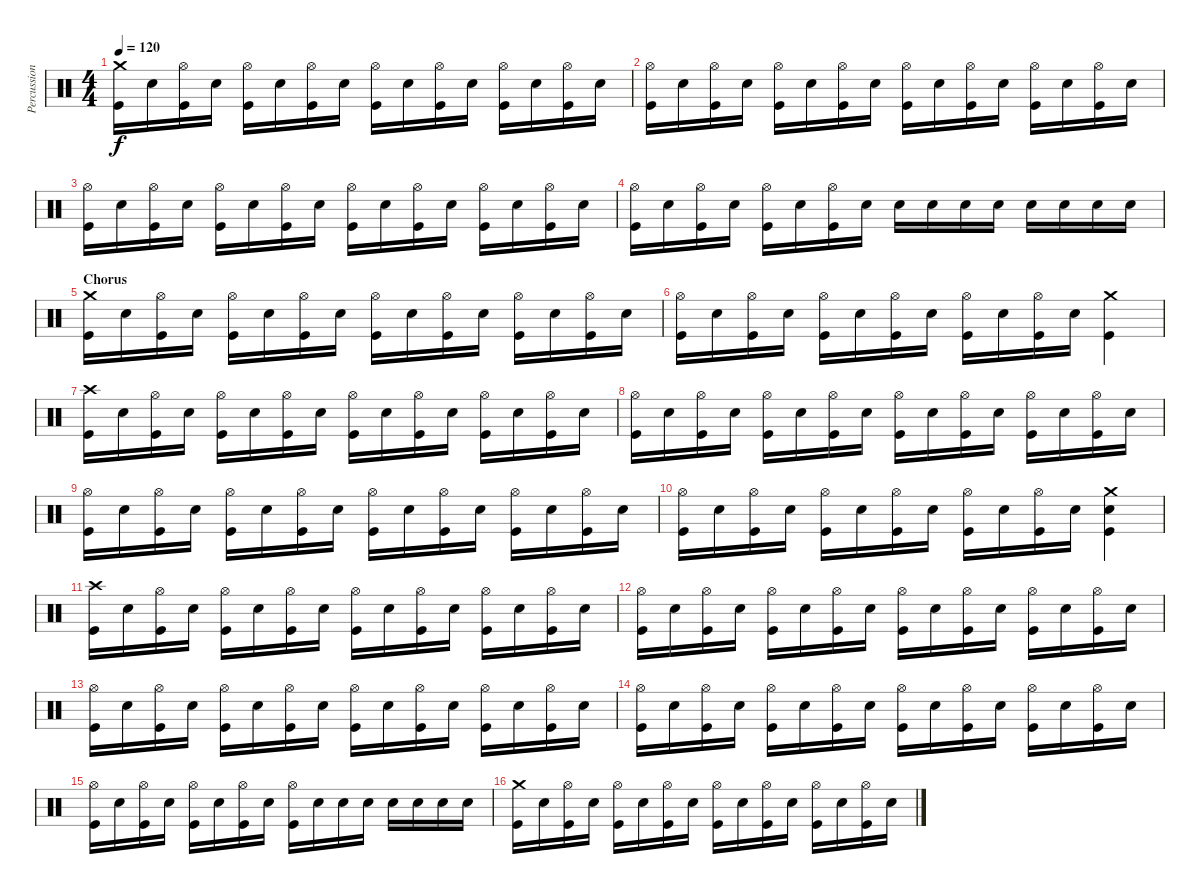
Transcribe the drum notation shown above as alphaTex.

\track ("Percussioni" "Percussion") {instrument percussion}
\staff {score}
\articulation defaults
\ts (4 4)
\tempo 120
\clef neutral
\ks c
("Crash medium (hit)" "Kick (hit)").16{dy f} "Snare (hit) 2".16 ("Hi-Hat (open)" "Kick (hit)").16 "Snare (hit) 2".16 ("Hi-Hat (open)" "Kick (hit)").16 "Snare (hit) 2".16 ("Hi-Hat (open)" "Kick (hit)").16 "Snare (hit) 2".16 ("Hi-Hat (open)" "Kick (hit)").16 "Snare (hit) 2".16 ("Hi-Hat (open)" "Kick (hit)").16 "Snare (hit) 2".16 ("Hi-Hat (open)" "Kick (hit)").16 "Snare (hit) 2".16 ("Hi-Hat (open)" "Kick (hit)").16 "Snare (hit) 2".16 |
("Hi-Hat (open)" "Kick (hit)").16 "Snare (hit) 2".16 ("Hi-Hat (open)" "Kick (hit)").16 "Snare (hit) 2".16 ("Hi-Hat (open)" "Kick (hit)").16 "Snare (hit) 2".16 ("Hi-Hat (open)" "Kick (hit)").16 "Snare (hit) 2".16 ("Hi-Hat (open)" "Kick (hit)").16 "Snare (hit) 2".16 ("Hi-Hat (open)" "Kick (hit)").16 "Snare (hit) 2".16 ("Hi-Hat (open)" "Kick (hit)").16 "Snare (hit) 2".16 ("Hi-Hat (open)" "Kick (hit)").16 "Snare (hit) 2".16 |
("Hi-Hat (open)" "Kick (hit)").16 "Snare (hit) 2".16 ("Hi-Hat (open)" "Kick (hit)").16 "Snare (hit) 2".16 ("Hi-Hat (open)" "Kick (hit)").16 "Snare (hit) 2".16 ("Hi-Hat (open)" "Kick (hit)").16 "Snare (hit) 2".16 ("Hi-Hat (open)" "Kick (hit)").16 "Snare (hit) 2".16 ("Hi-Hat (open)" "Kick (hit)").16 "Snare (hit) 2".16 ("Hi-Hat (open)" "Kick (hit)").16 "Snare (hit) 2".16 ("Hi-Hat (open)" "Kick (hit)").16 "Snare (hit) 2".16 |
("Hi-Hat (open)" "Kick (hit)").16 "Snare (hit) 2".16 ("Hi-Hat (open)" "Kick (hit)").16 "Snare (hit) 2".16 ("Hi-Hat (open)" "Kick (hit)").16 "Snare (hit) 2".16 ("Hi-Hat (open)" "Kick (hit)").16 "Snare (hit) 2".16 "Snare (hit) 2".16 "Snare (hit) 2".16 "Snare (hit) 2".16 "Snare (hit) 2".16 "Snare (hit) 2".16 "Snare (hit) 2".16 "Snare (hit) 2".16 "Snare (hit) 2".16 |
\section ("" "Chorus")
("Crash medium (hit)" "Kick (hit)").16 "Snare (hit) 2".16 ("Hi-Hat (open)" "Kick (hit)").16 "Snare (hit) 2".16 ("Hi-Hat (open)" "Kick (hit)").16 "Snare (hit) 2".16 ("Hi-Hat (open)" "Kick (hit)").16 "Snare (hit) 2".16 ("Hi-Hat (open)" "Kick (hit)").16 "Snare (hit) 2".16 ("Hi-Hat (open)" "Kick (hit)").16 "Snare (hit) 2".16 ("Hi-Hat (open)" "Kick (hit)").16 "Snare (hit) 2".16 ("Hi-Hat (open)" "Kick (hit)").16 "Snare (hit) 2".16 |
("Hi-Hat (open)" "Kick (hit)").16 "Snare (hit) 2".16 ("Hi-Hat (open)" "Kick (hit)").16 "Snare (hit) 2".16 ("Hi-Hat (open)" "Kick (hit)").16 "Snare (hit) 2".16 ("Hi-Hat (open)" "Kick (hit)").16 "Snare (hit) 2".16 ("Hi-Hat (open)" "Kick (hit)").16 "Snare (hit) 2".16 ("Hi-Hat (open)" "Kick (hit)").16 "Snare (hit) 2".16 ("Crash medium (hit)" "Kick (hit)").4 |
("Crash high (hit)" "Kick (hit)").16 "Snare (hit) 2".16 ("Hi-Hat (open)" "Kick (hit)").16 "Snare (hit) 2".16 ("Hi-Hat (open)" "Kick (hit)").16 "Snare (hit) 2".16 ("Hi-Hat (open)" "Kick (hit)").16 "Snare (hit) 2".16 ("Hi-Hat (open)" "Kick (hit)").16 "Snare (hit) 2".16 ("Hi-Hat (open)" "Kick (hit)").16 "Snare (hit) 2".16 ("Hi-Hat (open)" "Kick (hit)").16 "Snare (hit) 2".16 ("Hi-Hat (open)" "Kick (hit)").16 "Snare (hit) 2".16 |
("Hi-Hat (open)" "Kick (hit)").16 "Snare (hit) 2".16 ("Hi-Hat (open)" "Kick (hit)").16 "Snare (hit) 2".16 ("Hi-Hat (open)" "Kick (hit)").16 "Snare (hit) 2".16 ("Hi-Hat (open)" "Kick (hit)").16 "Snare (hit) 2".16 ("Hi-Hat (open)" "Kick (hit)").16 "Snare (hit) 2".16 ("Hi-Hat (open)" "Kick (hit)").16 "Snare (hit) 2".16 ("Hi-Hat (open)" "Kick (hit)").16 "Snare (hit) 2".16 ("Hi-Hat (open)" "Kick (hit)").16 "Snare (hit) 2".16 |
("Hi-Hat (open)" "Kick (hit)").16 "Snare (hit) 2".16 ("Hi-Hat (open)" "Kick (hit)").16 "Snare (hit) 2".16 ("Hi-Hat (open)" "Kick (hit)").16 "Snare (hit) 2".16 ("Hi-Hat (open)" "Kick (hit)").16 "Snare (hit) 2".16 ("Hi-Hat (open)" "Kick (hit)").16 "Snare (hit) 2".16 ("Hi-Hat (open)" "Kick (hit)").16 "Snare (hit) 2".16 ("Hi-Hat (open)" "Kick (hit)").16 "Snare (hit) 2".16 ("Hi-Hat (open)" "Kick (hit)").16 "Snare (hit) 2".16 |
("Hi-Hat (open)" "Kick (hit)").16 "Snare (hit) 2".16 ("Hi-Hat (open)" "Kick (hit)").16 "Snare (hit) 2".16 ("Hi-Hat (open)" "Kick (hit)").16 "Snare (hit) 2".16 ("Hi-Hat (open)" "Kick (hit)").16 "Snare (hit) 2".16 ("Hi-Hat (open)" "Kick (hit)").16 "Snare (hit) 2".16 ("Hi-Hat (open)" "Kick (hit)").16 "Snare (hit) 2".16 ("Crash medium (hit)" "Snare (hit) 2" "Kick (hit)").4 |
("Crash high (hit)" "Kick (hit)").16 "Snare (hit) 2".16 ("Hi-Hat (open)" "Kick (hit)").16 "Snare (hit) 2".16 ("Hi-Hat (open)" "Kick (hit)").16 "Snare (hit) 2".16 ("Hi-Hat (open)" "Kick (hit)").16 "Snare (hit) 2".16 ("Hi-Hat (open)" "Kick (hit)").16 "Snare (hit) 2".16 ("Hi-Hat (open)" "Kick (hit)").16 "Snare (hit) 2".16 ("Hi-Hat (open)" "Kick (hit)").16 "Snare (hit) 2".16 ("Hi-Hat (open)" "Kick (hit)").16 "Snare (hit) 2".16 |
("Hi-Hat (open)" "Kick (hit)").16 "Snare (hit) 2".16 ("Hi-Hat (open)" "Kick (hit)").16 "Snare (hit) 2".16 ("Hi-Hat (open)" "Kick (hit)").16 "Snare (hit) 2".16 ("Hi-Hat (open)" "Kick (hit)").16 "Snare (hit) 2".16 ("Hi-Hat (open)" "Kick (hit)").16 "Snare (hit) 2".16 ("Hi-Hat (open)" "Kick (hit)").16 "Snare (hit) 2".16 ("Hi-Hat (open)" "Kick (hit)").16 "Snare (hit) 2".16 ("Hi-Hat (open)" "Kick (hit)").16 "Snare (hit) 2".16 |
("Hi-Hat (open)" "Kick (hit)").16 "Snare (hit) 2".16 ("Hi-Hat (open)" "Kick (hit)").16 "Snare (hit) 2".16 ("Hi-Hat (open)" "Kick (hit)").16 "Snare (hit) 2".16 ("Hi-Hat (open)" "Kick (hit)").16 "Snare (hit) 2".16 ("Hi-Hat (open)" "Kick (hit)").16 "Snare (hit) 2".16 ("Hi-Hat (open)" "Kick (hit)").16 "Snare (hit) 2".16 ("Hi-Hat (open)" "Kick (hit)").16 "Snare (hit) 2".16 ("Hi-Hat (open)" "Kick (hit)").16 "Snare (hit) 2".16 |
("Hi-Hat (open)" "Kick (hit)").16 "Snare (hit) 2".16 ("Hi-Hat (open)" "Kick (hit)").16 "Snare (hit) 2".16 ("Hi-Hat (open)" "Kick (hit)").16 "Snare (hit) 2".16 ("Hi-Hat (open)" "Kick (hit)").16 "Snare (hit) 2".16 ("Hi-Hat (open)" "Kick (hit)").16 "Snare (hit) 2".16 ("Hi-Hat (open)" "Kick (hit)").16 "Snare (hit) 2".16 ("Hi-Hat (open)" "Kick (hit)").16 "Snare (hit) 2".16 ("Hi-Hat (open)" "Kick (hit)").16 "Snare (hit) 2".16 |
("Hi-Hat (open)" "Kick (hit)").16 "Snare (hit) 2".16 ("Hi-Hat (open)" "Kick (hit)").16 "Snare (hit) 2".16 ("Hi-Hat (open)" "Kick (hit)").16 "Snare (hit) 2".16 ("Hi-Hat (open)" "Kick (hit)").16 "Snare (hit) 2".16 ("Hi-Hat (open)" "Kick (hit)").16 "Snare (hit) 2".16 "Snare (hit) 2".16 "Snare (hit) 2".16 "Snare (hit) 2".16 "Snare (hit) 2".16 "Snare (hit) 2".16 "Snare (hit) 2".16 |
("Crash medium (hit)" "Kick (hit)").16 "Snare (hit) 2".16 ("Hi-Hat (open)" "Kick (hit)").16 "Snare (hit) 2".16 ("Hi-Hat (open)" "Kick (hit)").16 "Snare (hit) 2".16 ("Hi-Hat (open)" "Kick (hit)").16 "Snare (hit) 2".16 ("Hi-Hat (open)" "Kick (hit)").16 "Snare (hit) 2".16 ("Hi-Hat (open)" "Kick (hit)").16 "Snare (hit) 2".16 ("Hi-Hat (open)" "Kick (hit)").16 "Snare (hit) 2".16 ("Hi-Hat (open)" "Kick (hit)").16 "Snare (hit) 2".16
